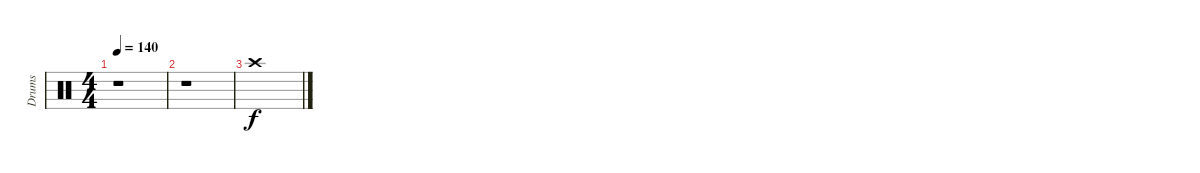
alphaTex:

\track ("Drums" "Drums") {instrument percussion}
\staff {score}
\articulation defaults
\ts (4 4)
\tempo 140
\clef neutral
\ks c
r.1{dy f} |
r.1 |
"Crash high (hit)".1
